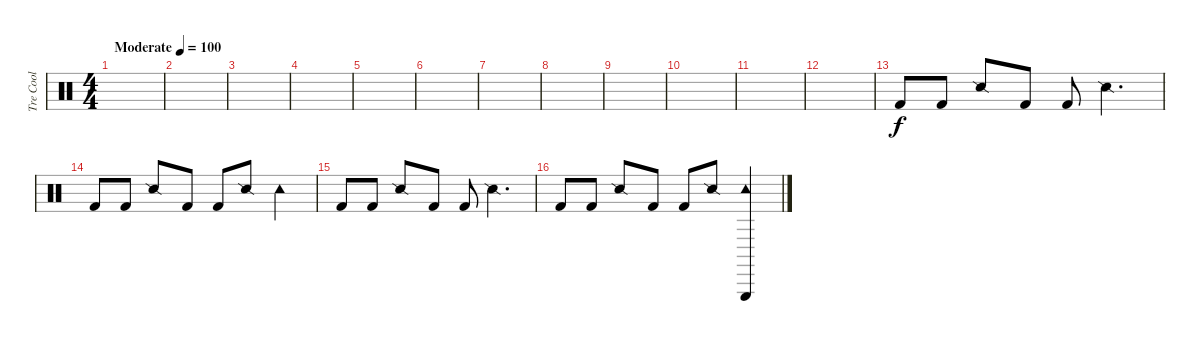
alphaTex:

\track ("Tre Cool" "Tre Cool") {instrument percussion}
\staff {score}
\articulation defaults
\ts (4 4)
\tempo (100 "Moderate")
\clef neutral
\ks c
|
|
|
|
|
|
|
|
|
|
|
|
"Kick (hit) 2".8 "Kick (hit) 2".8 "Snare (side stick) 2".8 "Kick (hit) 2".8 "Kick (hit) 2".8 "Snare (side stick) 2".4{d} |
"Kick (hit) 2".8 "Kick (hit) 2".8 "Snare (side stick) 2".8 "Kick (hit) 2".8 "Kick (hit) 2".8 "Snare (side stick) 2".8 "Tambourine (hit)".4 |
"Kick (hit) 2".8 "Kick (hit) 2".8 "Snare (side stick) 2".8 "Kick (hit) 2".8 "Kick (hit) 2".8 "Snare (side stick) 2".4{d} |
"Kick (hit) 2".8 "Kick (hit) 2".8 "Snare (side stick) 2".8 "Kick (hit) 2".8 "Kick (hit) 2".8 "Snare (side stick) 2".8 ("Triangle (hit)" "Tambourine (hit)").4
